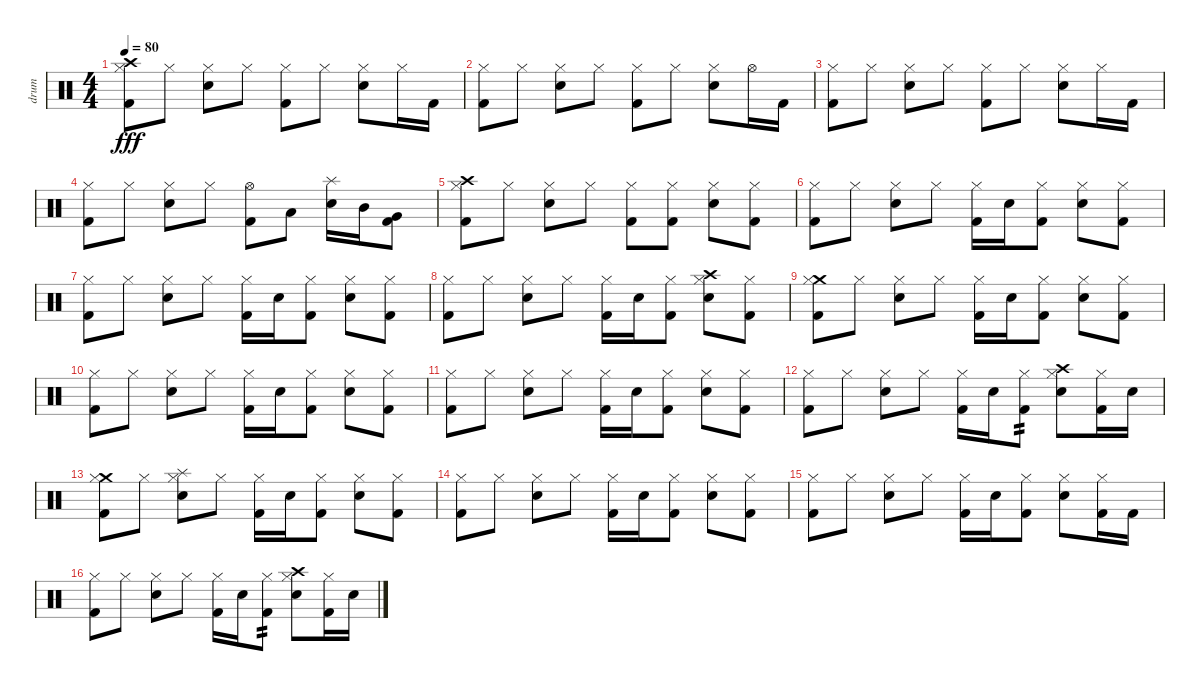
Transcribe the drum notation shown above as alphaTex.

\track ("drum" "drum") {instrument percussion}
\staff {score}
\articulation defaults
\ts (4 4)
\tempo 80
\clef neutral
\ks c
("Crash high (hit)" "Hi-Hat (closed)" "Kick (hit) 2").8{dy fff} "Hi-Hat (closed)".8 ("Hi-Hat (closed)" "Electric Snare (hit)").8 "Hi-Hat (closed)".8 ("Hi-Hat (closed)" "Kick (hit) 2").8 "Hi-Hat (closed)".8 ("Hi-Hat (closed)" "Electric Snare (hit)").8 "Hi-Hat (closed)".16 "Kick (hit) 2".16 |
("Hi-Hat (closed)" "Kick (hit) 2").8 "Hi-Hat (closed)".8 ("Hi-Hat (closed)" "Electric Snare (hit)").8 "Hi-Hat (closed)".8 ("Hi-Hat (closed)" "Kick (hit) 2").8 "Hi-Hat (closed)".8 ("Hi-Hat (closed)" "Electric Snare (hit)").8 "Hi-Hat (open)".16 "Kick (hit) 2".16 |
("Hi-Hat (closed)" "Kick (hit) 2").8 "Hi-Hat (closed)".8 ("Hi-Hat (closed)" "Electric Snare (hit)").8 "Hi-Hat (closed)".8 ("Hi-Hat (closed)" "Kick (hit) 2").8 "Hi-Hat (closed)".8 ("Hi-Hat (closed)" "Electric Snare (hit)").8 "Hi-Hat (closed)".16 "Kick (hit) 2".16 |
("Hi-Hat (closed)" "Kick (hit) 2").8 "Hi-Hat (closed)".8 ("Hi-Hat (closed)" "Electric Snare (hit)").8 "Hi-Hat (closed)".8 ("Hi-Hat (open)" "Kick (hit) 2").8 "Low Tom (hit)".8 ("Splash (hit)" "Electric Snare (hit)").16 "Mid Tom (hit)".16 ("Very Low Tom (hit)" "Kick (hit) 2").8 |
("Crash high (hit)" "Hi-Hat (closed)" "Kick (hit) 2").8 "Hi-Hat (closed)".8 ("Hi-Hat (closed)" "Electric Snare (hit)").8 "Hi-Hat (closed)".8 ("Hi-Hat (closed)" "Kick (hit) 2").8 ("Hi-Hat (closed)" "Kick (hit) 2").8 ("Hi-Hat (closed)" "Electric Snare (hit)").8 ("Hi-Hat (closed)" "Kick (hit) 2").8 |
("Hi-Hat (closed)" "Kick (hit) 2").8 "Hi-Hat (closed)".8 ("Hi-Hat (closed)" "Electric Snare (hit)").8 "Hi-Hat (closed)".8 ("Hi-Hat (closed)" "Kick (hit) 2").16 "Electric Snare (hit)".16 ("Hi-Hat (closed)" "Kick (hit) 2").8 ("Hi-Hat (closed)" "Electric Snare (hit)").8 ("Hi-Hat (closed)" "Kick (hit) 2").8 |
("Hi-Hat (closed)" "Kick (hit) 2").8 "Hi-Hat (closed)".8 ("Hi-Hat (closed)" "Electric Snare (hit)").8 "Hi-Hat (closed)".8 ("Hi-Hat (closed)" "Kick (hit) 2").16 "Electric Snare (hit)".16 ("Hi-Hat (closed)" "Kick (hit) 2").8 ("Hi-Hat (closed)" "Electric Snare (hit)").8 ("Hi-Hat (closed)" "Kick (hit) 2").8 |
("Hi-Hat (closed)" "Kick (hit) 2").8 "Hi-Hat (closed)".8 ("Hi-Hat (closed)" "Electric Snare (hit)").8 "Hi-Hat (closed)".8 ("Hi-Hat (closed)" "Kick (hit) 2").16 "Electric Snare (hit)".16 ("Hi-Hat (closed)" "Kick (hit) 2").8 ("Crash high (hit)" "Hi-Hat (closed)" "Electric Snare (hit)").8 ("Hi-Hat (closed)" "Kick (hit) 2").8 |
("Crash medium (hit)" "Hi-Hat (closed)" "Kick (hit) 2").8 "Hi-Hat (closed)".8 ("Hi-Hat (closed)" "Electric Snare (hit)").8 "Hi-Hat (closed)".8 ("Hi-Hat (closed)" "Kick (hit) 2").16 "Electric Snare (hit)".16 ("Hi-Hat (closed)" "Kick (hit) 2").8 ("Hi-Hat (closed)" "Electric Snare (hit)").8 ("Hi-Hat (closed)" "Kick (hit) 2").8 |
("Hi-Hat (closed)" "Kick (hit) 2").8 "Hi-Hat (closed)".8 ("Hi-Hat (closed)" "Electric Snare (hit)").8 "Hi-Hat (closed)".8 ("Hi-Hat (closed)" "Kick (hit) 2").16 "Electric Snare (hit)".16 ("Hi-Hat (closed)" "Kick (hit) 2").8 ("Hi-Hat (closed)" "Electric Snare (hit)").8 ("Hi-Hat (closed)" "Kick (hit) 2").8 |
("Hi-Hat (closed)" "Kick (hit) 2").8 "Hi-Hat (closed)".8 ("Hi-Hat (closed)" "Electric Snare (hit)").8 "Hi-Hat (closed)".8 ("Hi-Hat (closed)" "Kick (hit) 2").16 "Electric Snare (hit)".16 ("Hi-Hat (closed)" "Kick (hit) 2").8 ("Hi-Hat (closed)" "Electric Snare (hit)").8 ("Hi-Hat (closed)" "Kick (hit) 2").8 |
("Hi-Hat (closed)" "Kick (hit) 2").8 "Hi-Hat (closed)".8 ("Hi-Hat (closed)" "Electric Snare (hit)").8 "Hi-Hat (closed)".8 ("Hi-Hat (closed)" "Kick (hit) 2").16 "Electric Snare (hit)".16 ("Hi-Hat (closed)" "Kick (hit) 2").8{tp 2} ("Crash high (hit)" "Hi-Hat (closed)" "Electric Snare (hit)").8 ("Hi-Hat (closed)" "Kick (hit) 2").16 "Electric Snare (hit)".16 |
("Crash medium (hit)" "Hi-Hat (closed)" "Kick (hit) 2").8 "Hi-Hat (closed)".8 ("Splash (hit)" "Hi-Hat (closed)" "Electric Snare (hit)").8 "Hi-Hat (closed)".8 ("Hi-Hat (closed)" "Kick (hit) 2").16 "Electric Snare (hit)".16 ("Hi-Hat (closed)" "Kick (hit) 2").8 ("Hi-Hat (closed)" "Electric Snare (hit)").8 ("Hi-Hat (closed)" "Kick (hit) 2").8 |
("Hi-Hat (closed)" "Kick (hit) 2").8 "Hi-Hat (closed)".8 ("Hi-Hat (closed)" "Electric Snare (hit)").8 "Hi-Hat (closed)".8 ("Hi-Hat (closed)" "Kick (hit) 2").16 "Electric Snare (hit)".16 ("Hi-Hat (closed)" "Kick (hit) 2").8 ("Hi-Hat (closed)" "Electric Snare (hit)").8 ("Hi-Hat (closed)" "Kick (hit) 2").8 |
("Hi-Hat (closed)" "Kick (hit) 2").8 "Hi-Hat (closed)".8 ("Hi-Hat (closed)" "Electric Snare (hit)").8 "Hi-Hat (closed)".8 ("Hi-Hat (closed)" "Kick (hit) 2").16 "Electric Snare (hit)".16 ("Hi-Hat (closed)" "Kick (hit) 2").8 ("Hi-Hat (closed)" "Electric Snare (hit)").8 ("Hi-Hat (closed)" "Kick (hit) 2").16 "Kick (hit) 2".16 |
("Hi-Hat (closed)" "Kick (hit) 2").8 "Hi-Hat (closed)".8 ("Hi-Hat (closed)" "Electric Snare (hit)").8 "Hi-Hat (closed)".8 ("Hi-Hat (closed)" "Kick (hit) 2").16 "Electric Snare (hit)".16 ("Hi-Hat (closed)" "Kick (hit) 2").8{tp 2} ("Crash high (hit)" "Hi-Hat (closed)" "Electric Snare (hit)").8 ("Hi-Hat (closed)" "Kick (hit) 2").16 "Electric Snare (hit)".16
